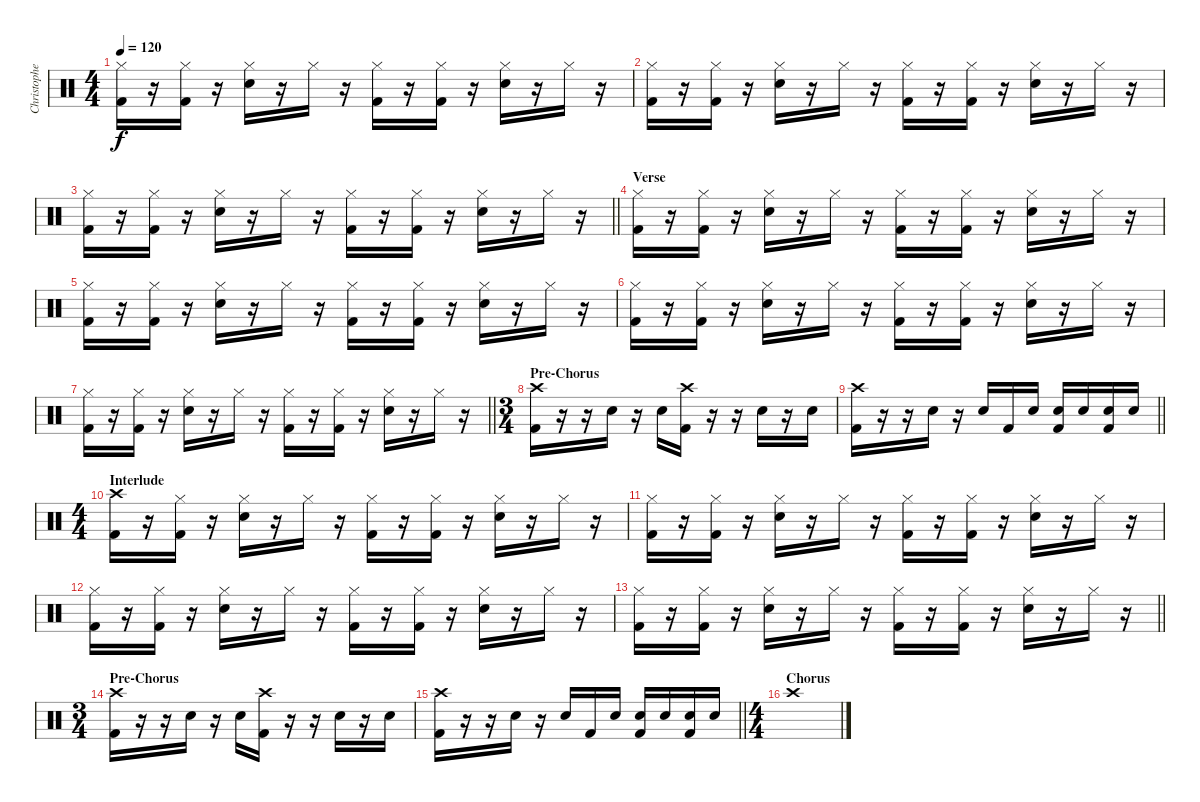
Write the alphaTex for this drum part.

\track ("Christopher - Drums" "Christophe") {instrument percussion}
\staff {score}
\articulation defaults
\ts (4 4)
\tempo 120
\clef neutral
\ks c
("Hi-Hat (closed)" "Kick (hit) 2").16{dy f} r.16 ("Hi-Hat (closed)" "Kick (hit) 2").16 r.16 ("Hi-Hat (closed)" "Electric Snare (hit)").16 r.16 "Hi-Hat (closed)".16 r.16 ("Hi-Hat (closed)" "Kick (hit) 2").16 r.16 ("Hi-Hat (closed)" "Kick (hit) 2").16 r.16 ("Hi-Hat (closed)" "Electric Snare (hit)").16 r.16 "Hi-Hat (closed)".16 r.16 |
("Hi-Hat (closed)" "Kick (hit) 2").16 r.16 ("Hi-Hat (closed)" "Kick (hit) 2").16 r.16 ("Hi-Hat (closed)" "Electric Snare (hit)").16 r.16 "Hi-Hat (closed)".16 r.16 ("Hi-Hat (closed)" "Kick (hit) 2").16 r.16 ("Hi-Hat (closed)" "Kick (hit) 2").16 r.16 ("Hi-Hat (closed)" "Electric Snare (hit)").16 r.16 "Hi-Hat (closed)".16 r.16 |
\barLineRight lightlight
("Hi-Hat (closed)" "Kick (hit) 2").16 r.16 ("Hi-Hat (closed)" "Kick (hit) 2").16 r.16 ("Hi-Hat (closed)" "Electric Snare (hit)").16 r.16 "Hi-Hat (closed)".16 r.16 ("Hi-Hat (closed)" "Kick (hit) 2").16 r.16 ("Hi-Hat (closed)" "Kick (hit) 2").16 r.16 ("Hi-Hat (closed)" "Electric Snare (hit)").16 r.16 "Hi-Hat (closed)".16 r.16 |
\section ("" "Verse")
("Hi-Hat (closed)" "Kick (hit) 2").16 r.16 ("Hi-Hat (closed)" "Kick (hit) 2").16 r.16 ("Hi-Hat (closed)" "Electric Snare (hit)").16 r.16 "Hi-Hat (closed)".16 r.16 ("Hi-Hat (closed)" "Kick (hit) 2").16 r.16 ("Hi-Hat (closed)" "Kick (hit) 2").16 r.16 ("Hi-Hat (closed)" "Electric Snare (hit)").16 r.16 "Hi-Hat (closed)".16 r.16 |
("Hi-Hat (closed)" "Kick (hit) 2").16 r.16 ("Hi-Hat (closed)" "Kick (hit) 2").16 r.16 ("Hi-Hat (closed)" "Electric Snare (hit)").16 r.16 "Hi-Hat (closed)".16 r.16 ("Hi-Hat (closed)" "Kick (hit) 2").16 r.16 ("Hi-Hat (closed)" "Kick (hit) 2").16 r.16 ("Hi-Hat (closed)" "Electric Snare (hit)").16 r.16 "Hi-Hat (closed)".16 r.16 |
("Hi-Hat (closed)" "Kick (hit) 2").16 r.16 ("Hi-Hat (closed)" "Kick (hit) 2").16 r.16 ("Hi-Hat (closed)" "Electric Snare (hit)").16 r.16 "Hi-Hat (closed)".16 r.16 ("Hi-Hat (closed)" "Kick (hit) 2").16 r.16 ("Hi-Hat (closed)" "Kick (hit) 2").16 r.16 ("Hi-Hat (closed)" "Electric Snare (hit)").16 r.16 "Hi-Hat (closed)".16 r.16 |
\barLineRight lightlight
("Hi-Hat (closed)" "Kick (hit) 2").16 r.16 ("Hi-Hat (closed)" "Kick (hit) 2").16 r.16 ("Hi-Hat (closed)" "Electric Snare (hit)").16 r.16 "Hi-Hat (closed)".16 r.16 ("Hi-Hat (closed)" "Kick (hit) 2").16 r.16 ("Hi-Hat (closed)" "Kick (hit) 2").16 r.16 ("Hi-Hat (closed)" "Electric Snare (hit)").16 r.16 "Hi-Hat (closed)".16 r.16 |
\ts (3 4)
\section ("" "Pre-Chorus")
("Crash high (hit)" "Kick (hit) 2").16 r.16 r.16 "Electric Snare (hit)".16 r.16 "Electric Snare (hit)".16 ("Crash high (hit)" "Kick (hit) 2").16 r.16 r.16 "Electric Snare (hit)".16 r.16 "Electric Snare (hit)".16 |
\barLineRight lightlight
("Crash high (hit)" "Kick (hit) 2").16 r.16 r.16 "Electric Snare (hit)".16 r.16 "Electric Snare (hit)".16 "Kick (hit) 2".16 "Electric Snare (hit)".16 ("Electric Snare (hit)" "Kick (hit) 2").16 "Electric Snare (hit)".16 ("Electric Snare (hit)" "Kick (hit) 2").16 "Electric Snare (hit)".16 |
\ts (4 4)
\section ("" "Interlude")
("Crash high (hit)" "Kick (hit) 2").16 r.16 ("Hi-Hat (closed)" "Kick (hit) 2").16 r.16 ("Hi-Hat (closed)" "Electric Snare (hit)").16 r.16 "Hi-Hat (closed)".16 r.16 ("Hi-Hat (closed)" "Kick (hit) 2").16 r.16 ("Hi-Hat (closed)" "Kick (hit) 2").16 r.16 ("Hi-Hat (closed)" "Electric Snare (hit)").16 r.16 "Hi-Hat (closed)".16 r.16 |
("Hi-Hat (closed)" "Kick (hit) 2").16 r.16 ("Hi-Hat (closed)" "Kick (hit) 2").16 r.16 ("Hi-Hat (closed)" "Electric Snare (hit)").16 r.16 "Hi-Hat (closed)".16 r.16 ("Hi-Hat (closed)" "Kick (hit) 2").16 r.16 ("Hi-Hat (closed)" "Kick (hit) 2").16 r.16 ("Hi-Hat (closed)" "Electric Snare (hit)").16 r.16 "Hi-Hat (closed)".16 r.16 |
("Hi-Hat (closed)" "Kick (hit) 2").16 r.16 ("Hi-Hat (closed)" "Kick (hit) 2").16 r.16 ("Hi-Hat (closed)" "Electric Snare (hit)").16 r.16 "Hi-Hat (closed)".16 r.16 ("Hi-Hat (closed)" "Kick (hit) 2").16 r.16 ("Hi-Hat (closed)" "Kick (hit) 2").16 r.16 ("Hi-Hat (closed)" "Electric Snare (hit)").16 r.16 "Hi-Hat (closed)".16 r.16 |
\barLineRight lightlight
("Hi-Hat (closed)" "Kick (hit) 2").16 r.16 ("Hi-Hat (closed)" "Kick (hit) 2").16 r.16 ("Hi-Hat (closed)" "Electric Snare (hit)").16 r.16 "Hi-Hat (closed)".16 r.16 ("Hi-Hat (closed)" "Kick (hit) 2").16 r.16 ("Hi-Hat (closed)" "Kick (hit) 2").16 r.16 ("Hi-Hat (closed)" "Electric Snare (hit)").16 r.16 "Hi-Hat (closed)".16 r.16 |
\ts (3 4)
\section ("" "Pre-Chorus")
("Crash high (hit)" "Kick (hit) 2").16 r.16 r.16 "Electric Snare (hit)".16 r.16 "Electric Snare (hit)".16 ("Crash high (hit)" "Kick (hit) 2").16 r.16 r.16 "Electric Snare (hit)".16 r.16 "Electric Snare (hit)".16 |
\barLineRight lightlight
("Crash high (hit)" "Kick (hit) 2").16 r.16 r.16 "Electric Snare (hit)".16 r.16 "Electric Snare (hit)".16 "Kick (hit) 2".16 "Electric Snare (hit)".16 ("Electric Snare (hit)" "Kick (hit) 2").16 "Electric Snare (hit)".16 ("Electric Snare (hit)" "Kick (hit) 2").16 "Electric Snare (hit)".16 |
\ts (4 4)
\section ("" "Chorus")
"Crash high (hit)".1
